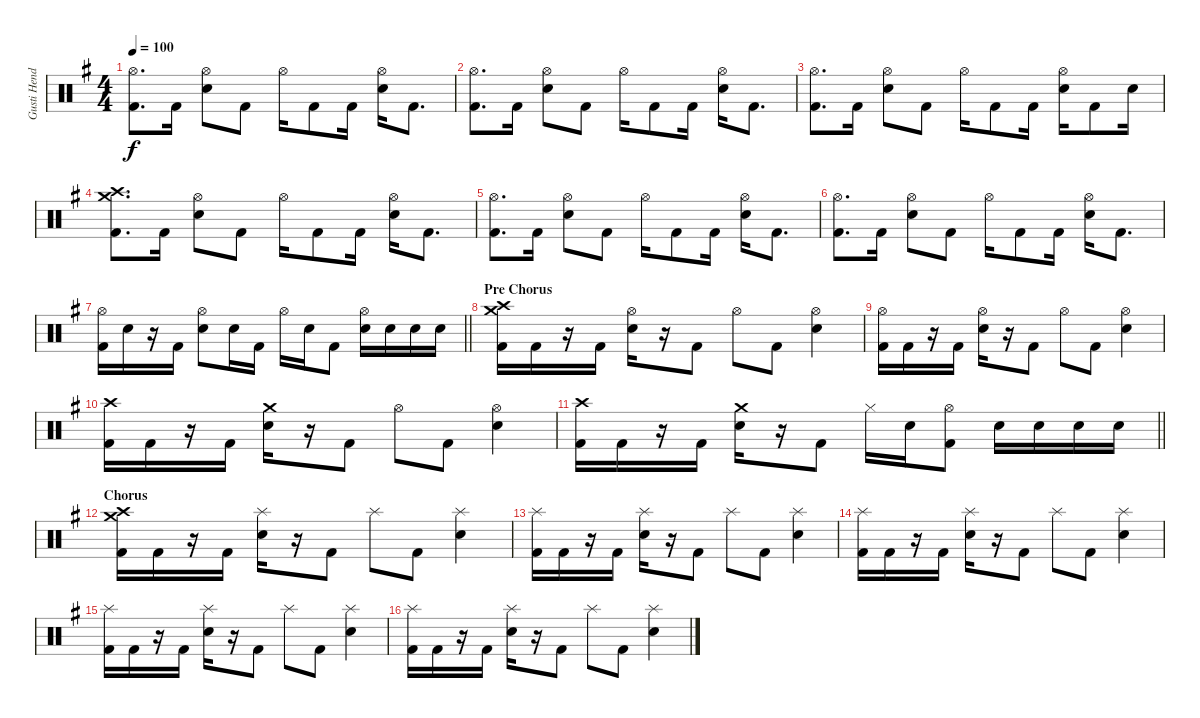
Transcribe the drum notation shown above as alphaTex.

\track ("Gusti Hendy" "Gusti Hend") {instrument percussion}
\staff {score}
\articulation defaults
\ts (4 4)
\tempo 100
\clef neutral
\ks g
("Hi-Hat (open)" "Kick (hit) 2").8{d dy f} "Kick (hit) 2".16 ("Hi-Hat (open)" "Electric Snare (hit)").8 "Kick (hit) 2".8 "Hi-Hat (open)".16 "Kick (hit) 2".8 "Kick (hit) 2".16 ("Hi-Hat (open)" "Electric Snare (hit)").16 "Kick (hit) 2".8{d} |
("Hi-Hat (open)" "Kick (hit) 2").8{d} "Kick (hit) 2".16 ("Hi-Hat (open)" "Electric Snare (hit)").8 "Kick (hit) 2".8 "Hi-Hat (open)".16 "Kick (hit) 2".8 "Kick (hit) 2".16 ("Hi-Hat (open)" "Electric Snare (hit)").16 "Kick (hit) 2".8{d} |
("Hi-Hat (open)" "Kick (hit) 2").8{d} "Kick (hit) 2".16 ("Hi-Hat (open)" "Electric Snare (hit)").8 "Kick (hit) 2".8 "Hi-Hat (open)".16 "Kick (hit) 2".8 "Kick (hit) 2".16 ("Hi-Hat (open)" "Electric Snare (hit)").16 "Kick (hit) 2".8 "Electric Snare (hit)".16 |
("Crash high (hit)" "Crash medium (hit)" "Kick (hit) 2").8{d} "Kick (hit) 2".16 ("Hi-Hat (open)" "Electric Snare (hit)").8 "Kick (hit) 2".8 "Hi-Hat (open)".16 "Kick (hit) 2".8 "Kick (hit) 2".16 ("Hi-Hat (open)" "Electric Snare (hit)").16 "Kick (hit) 2".8{d} |
("Hi-Hat (open)" "Kick (hit) 2").8{d} "Kick (hit) 2".16 ("Hi-Hat (open)" "Electric Snare (hit)").8 "Kick (hit) 2".8 "Hi-Hat (open)".16 "Kick (hit) 2".8 "Kick (hit) 2".16 ("Hi-Hat (open)" "Electric Snare (hit)").16 "Kick (hit) 2".8{d} |
("Hi-Hat (open)" "Kick (hit) 2").8{d} "Kick (hit) 2".16 ("Hi-Hat (open)" "Electric Snare (hit)").8 "Kick (hit) 2".8 "Hi-Hat (open)".16 "Kick (hit) 2".8 "Kick (hit) 2".16 ("Hi-Hat (open)" "Electric Snare (hit)").16 "Kick (hit) 2".8{d} |
\barLineRight lightlight
("Hi-Hat (open)" "Kick (hit) 2").16 "Electric Snare (hit)".16 r.16 "Kick (hit) 2".16 ("Hi-Hat (open)" "Electric Snare (hit)").8 "Electric Snare (hit)".16 "Kick (hit) 2".16 "Hi-Hat (open)".16 "Electric Snare (hit)".16 "Kick (hit) 2".8 ("Hi-Hat (open)" "Electric Snare (hit)").16 "Electric Snare (hit)".16 "Electric Snare (hit)".16 "Electric Snare (hit)".16 |
\section ("" "Pre Chorus")
("Crash high (hit)" "Crash medium (hit)" "Kick (hit) 2").16 "Kick (hit) 2".16 r.16 "Kick (hit) 2".16 ("Hi-Hat (open)" "Electric Snare (hit)").16 r.16 "Kick (hit) 2".8 "Hi-Hat (open)".8 "Kick (hit) 2".8 ("Hi-Hat (open)" "Electric Snare (hit)").4 |
("Hi-Hat (open)" "Kick (hit) 2").16 "Kick (hit) 2".16 r.16 "Kick (hit) 2".16 ("Hi-Hat (open)" "Electric Snare (hit)").16 r.16 "Kick (hit) 2".8 "Hi-Hat (open)".8 "Kick (hit) 2".8 ("Hi-Hat (open)" "Electric Snare (hit)").4 |
("Crash high (hit)" "Kick (hit) 2").16 "Kick (hit) 2".16 r.16 "Kick (hit) 2".16 ("Crash medium (hit)" "Electric Snare (hit)").16 r.16 "Kick (hit) 2".8 "Hi-Hat (open)".8 "Kick (hit) 2".8 ("Hi-Hat (open)" "Electric Snare (hit)").4 |
\barLineRight lightlight
("Crash high (hit)" "Kick (hit) 2").16 "Kick (hit) 2".16 r.16 "Kick (hit) 2".16 ("Crash medium (hit)" "Electric Snare (hit)").16 r.16 "Kick (hit) 2".8 "Hi-Hat (closed)".16 "Electric Snare (hit)".16 ("Hi-Hat (open)" "Kick (hit) 2").8 "Electric Snare (hit)".16 "Electric Snare (hit)".16 "Electric Snare (hit)".16 "Electric Snare (hit)".16 |
\section ("" "Chorus")
("Crash high (hit)" "Crash medium (hit)" "Kick (hit) 2").16 "Kick (hit) 2".16 r.16 "Kick (hit) 2".16 ("Splash (hit)" "Electric Snare (hit)").16 r.16 "Kick (hit) 2".8 "Splash (hit)".8 "Kick (hit) 2".8 ("Splash (hit)" "Electric Snare (hit)").4 |
("Splash (hit)" "Kick (hit) 2").16 "Kick (hit) 2".16 r.16 "Kick (hit) 2".16 ("Splash (hit)" "Electric Snare (hit)").16 r.16 "Kick (hit) 2".8 "Splash (hit)".8 "Kick (hit) 2".8 ("Splash (hit)" "Electric Snare (hit)").4 |
("Splash (hit)" "Kick (hit) 2").16 "Kick (hit) 2".16 r.16 "Kick (hit) 2".16 ("Splash (hit)" "Electric Snare (hit)").16 r.16 "Kick (hit) 2".8 "Splash (hit)".8 "Kick (hit) 2".8 ("Splash (hit)" "Electric Snare (hit)").4 |
("Splash (hit)" "Kick (hit) 2").16 "Kick (hit) 2".16 r.16 "Kick (hit) 2".16 ("Splash (hit)" "Electric Snare (hit)").16 r.16 "Kick (hit) 2".8 "Splash (hit)".8 "Kick (hit) 2".8 ("Splash (hit)" "Electric Snare (hit)").4 |
("Splash (hit)" "Kick (hit) 2").16 "Kick (hit) 2".16 r.16 "Kick (hit) 2".16 ("Splash (hit)" "Electric Snare (hit)").16 r.16 "Kick (hit) 2".8 "Splash (hit)".8 "Kick (hit) 2".8 ("Splash (hit)" "Electric Snare (hit)").4
